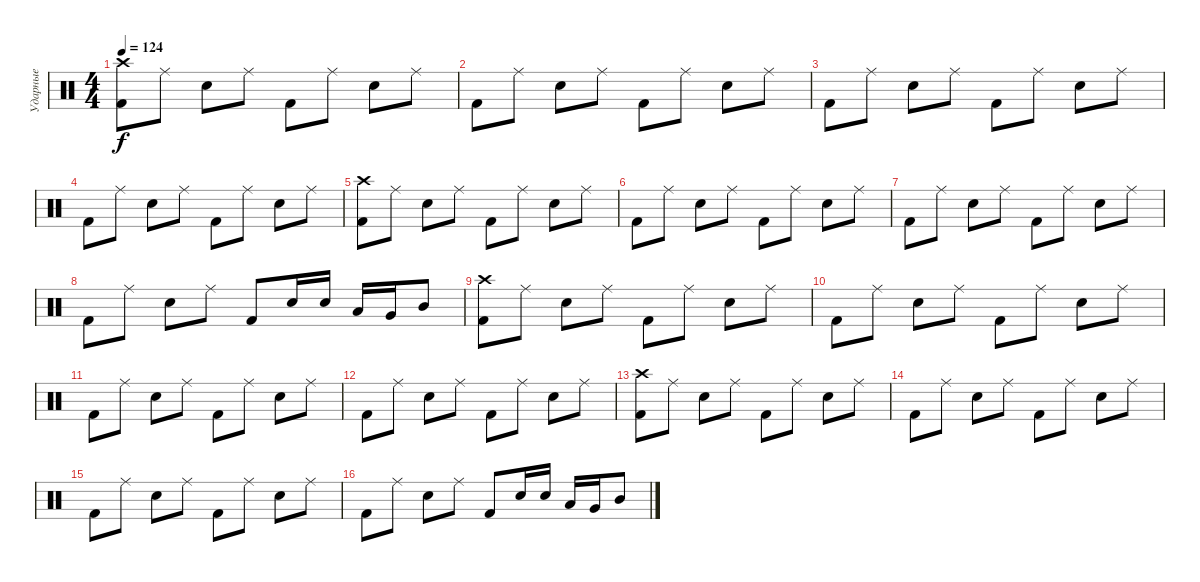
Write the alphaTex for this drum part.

\track ("Ударные" "Ударные") {instrument percussion}
\staff {score}
\articulation defaults
\ts (4 4)
\tempo 124
\clef neutral
\ks c
("Crash high (hit)" "Kick (hit) 2").8{dy f} "Ride (middle)".8 "Electric Snare (hit)".8 "Ride (middle)".8 "Kick (hit) 2".8 "Ride (middle)".8 "Electric Snare (hit)".8 "Ride (middle)".8 |
"Kick (hit) 2".8 "Ride (middle)".8 "Electric Snare (hit)".8 "Ride (middle)".8 "Kick (hit) 2".8 "Ride (middle)".8 "Electric Snare (hit)".8 "Ride (middle)".8 |
"Kick (hit) 2".8 "Ride (middle)".8 "Electric Snare (hit)".8 "Ride (middle)".8 "Kick (hit) 2".8 "Ride (middle)".8 "Electric Snare (hit)".8 "Ride (middle)".8 |
"Kick (hit) 2".8 "Ride (middle)".8 "Electric Snare (hit)".8 "Ride (middle)".8 "Kick (hit) 2".8 "Ride (middle)".8 "Electric Snare (hit)".8 "Ride (middle)".8 |
("Crash high (hit)" "Kick (hit) 2").8 "Ride (middle)".8 "Electric Snare (hit)".8 "Ride (middle)".8 "Kick (hit) 2".8 "Ride (middle)".8 "Electric Snare (hit)".8 "Ride (middle)".8 |
"Kick (hit) 2".8 "Ride (middle)".8 "Electric Snare (hit)".8 "Ride (middle)".8 "Kick (hit) 2".8 "Ride (middle)".8 "Electric Snare (hit)".8 "Ride (middle)".8 |
"Kick (hit) 2".8 "Ride (middle)".8 "Electric Snare (hit)".8 "Ride (middle)".8 "Kick (hit) 2".8 "Ride (middle)".8 "Electric Snare (hit)".8 "Ride (middle)".8 |
"Kick (hit) 2".8 "Ride (middle)".8 "Electric Snare (hit)".8 "Ride (middle)".8 "Kick (hit) 2".8 "Electric Snare (hit)".16 "Electric Snare (hit)".16 "Low Tom (hit)".16 "Very Low Tom (hit)".16 "Mid Tom (hit)".8 |
("Crash high (hit)" "Kick (hit) 2").8 "Ride (middle)".8 "Electric Snare (hit)".8 "Ride (middle)".8 "Kick (hit) 2".8 "Ride (middle)".8 "Electric Snare (hit)".8 "Ride (middle)".8 |
"Kick (hit) 2".8 "Ride (middle)".8 "Electric Snare (hit)".8 "Ride (middle)".8 "Kick (hit) 2".8 "Ride (middle)".8 "Electric Snare (hit)".8 "Ride (middle)".8 |
"Kick (hit) 2".8 "Ride (middle)".8 "Electric Snare (hit)".8 "Ride (middle)".8 "Kick (hit) 2".8 "Ride (middle)".8 "Electric Snare (hit)".8 "Ride (middle)".8 |
"Kick (hit) 2".8 "Ride (middle)".8 "Electric Snare (hit)".8 "Ride (middle)".8 "Kick (hit) 2".8 "Ride (middle)".8 "Electric Snare (hit)".8 "Ride (middle)".8 |
("Crash high (hit)" "Kick (hit) 2").8 "Ride (middle)".8 "Electric Snare (hit)".8 "Ride (middle)".8 "Kick (hit) 2".8 "Ride (middle)".8 "Electric Snare (hit)".8 "Ride (middle)".8 |
"Kick (hit) 2".8 "Ride (middle)".8 "Electric Snare (hit)".8 "Ride (middle)".8 "Kick (hit) 2".8 "Ride (middle)".8 "Electric Snare (hit)".8 "Ride (middle)".8 |
"Kick (hit) 2".8 "Ride (middle)".8 "Electric Snare (hit)".8 "Ride (middle)".8 "Kick (hit) 2".8 "Ride (middle)".8 "Electric Snare (hit)".8 "Ride (middle)".8 |
"Kick (hit) 2".8 "Ride (middle)".8 "Electric Snare (hit)".8 "Ride (middle)".8 "Kick (hit) 2".8 "Electric Snare (hit)".16 "Electric Snare (hit)".16 "Low Tom (hit)".16 "Very Low Tom (hit)".16 "Mid Tom (hit)".8
